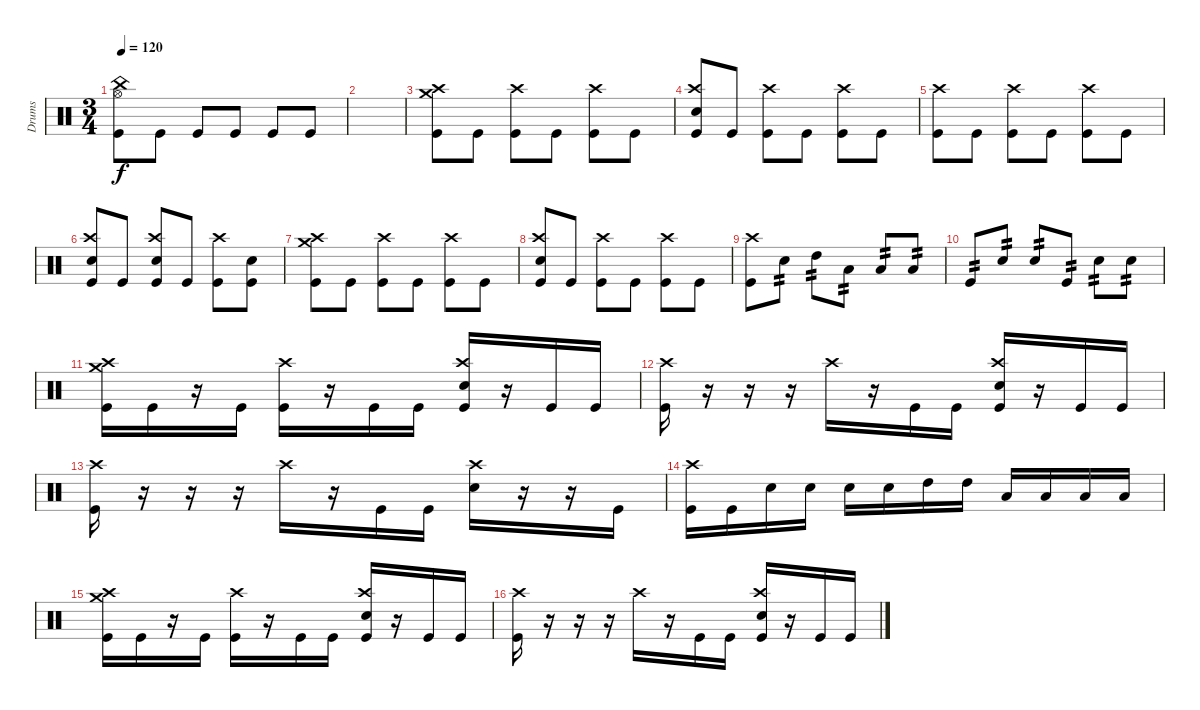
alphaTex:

\track ("Drums" "Drums") {instrument percussion}
\staff {score}
\articulation defaults
\ts (3 4)
\tempo 120
\clef neutral
\ks c
("Hi-Hat (open)" "China (hit)" "Kick (hit)").8{dy f} "Kick (hit)".8 "Kick (hit)".8 "Kick (hit)".8 "Kick (hit)".8 "Kick (hit)".8 |
|
("Crash high (hit)" "Crash medium (hit)" "Kick (hit)").8 "Kick (hit)".8 ("Crash high (hit)" "Kick (hit)").8 "Kick (hit)".8 ("Crash high (hit)" "Kick (hit)").8 "Kick (hit)".8 |
("Crash high (hit)" "Snare (hit) 2" "Kick (hit)").8 "Kick (hit)".8 ("Crash high (hit)" "Kick (hit)").8 "Kick (hit)".8 ("Crash high (hit)" "Kick (hit)").8 "Kick (hit)".8 |
("Crash high (hit)" "Kick (hit)").8 "Kick (hit)".8 ("Crash high (hit)" "Kick (hit)").8 "Kick (hit)".8 ("Crash high (hit)" "Kick (hit)").8 "Kick (hit)".8 |
("Crash high (hit)" "Snare (hit) 2" "Kick (hit)").8 "Kick (hit)".8 ("Crash high (hit)" "Snare (hit) 2" "Kick (hit)").8 "Kick (hit)".8 ("Crash high (hit)" "Kick (hit)").8 ("Snare (hit) 2" "Kick (hit)").8 |
("Crash high (hit)" "Crash medium (hit)" "Kick (hit)").8 "Kick (hit)".8 ("Crash high (hit)" "Kick (hit)").8 "Kick (hit)".8 ("Crash high (hit)" "Kick (hit)").8 "Kick (hit)".8 |
("Crash high (hit)" "Snare (hit) 2" "Kick (hit)").8 "Kick (hit)".8 ("Crash high (hit)" "Kick (hit)").8 "Kick (hit)".8 ("Crash high (hit)" "Kick (hit)").8 "Kick (hit)".8 |
("Crash high (hit)" "Kick (hit)").8 "Snare (hit) 2".8{tp 2} "High Tom (hit)".8{tp 2} "Low Tom (hit)".8{tp 2} "Low Tom (hit)".8{tp 2} "Low Tom (hit)".8{tp 2} |
"Kick (hit)".8{tp 2} "Snare (hit) 2".8{tp 2} "Snare (hit) 2".8{tp 2} "Kick (hit)".8{tp 2} "Snare (hit) 2".8{tp 2} "Snare (hit) 2".8{tp 2} |
("Crash high (hit)" "Crash medium (hit)" "Kick (hit)").16 "Kick (hit)".16 r.16 "Kick (hit)".16 ("Crash high (hit)" "Kick (hit)").16 r.16 "Kick (hit)".16 "Kick (hit)".16 ("Crash high (hit)" "Snare (hit) 2" "Kick (hit)").16 r.16 "Kick (hit)".16 "Kick (hit)".16 |
("Crash high (hit)" "Kick (hit)").16 r.16 r.16 r.16 "Crash high (hit)".16 r.16 "Kick (hit)".16 "Kick (hit)".16 ("Crash high (hit)" "Snare (hit) 2" "Kick (hit)").16 r.16 "Kick (hit)".16 "Kick (hit)".16 |
("Crash high (hit)" "Kick (hit)").16 r.16 r.16 r.16 "Crash high (hit)".16 r.16 "Kick (hit)".16 "Kick (hit)".16 ("Crash high (hit)" "Snare (hit) 2").16 r.16 r.16 "Kick (hit)".16 |
("Crash high (hit)" "Kick (hit)").16 "Kick (hit)".16 "Snare (hit) 2".16 "Snare (hit) 2".16 "Snare (hit) 2".16 "Snare (hit) 2".16 "High Tom (hit)".16 "High Tom (hit)".16 "Low Tom (hit)".16 "Low Tom (hit)".16 "Low Tom (hit)".16 "Low Tom (hit)".16 |
("Crash high (hit)" "Crash medium (hit)" "Kick (hit)").16 "Kick (hit)".16 r.16 "Kick (hit)".16 ("Crash high (hit)" "Kick (hit)").16 r.16 "Kick (hit)".16 "Kick (hit)".16 ("Crash high (hit)" "Snare (hit) 2" "Kick (hit)").16 r.16 "Kick (hit)".16 "Kick (hit)".16 |
("Crash high (hit)" "Kick (hit)").16 r.16 r.16 r.16 "Crash high (hit)".16 r.16 "Kick (hit)".16 "Kick (hit)".16 ("Crash high (hit)" "Snare (hit) 2" "Kick (hit)").16 r.16 "Kick (hit)".16 "Kick (hit)".16
